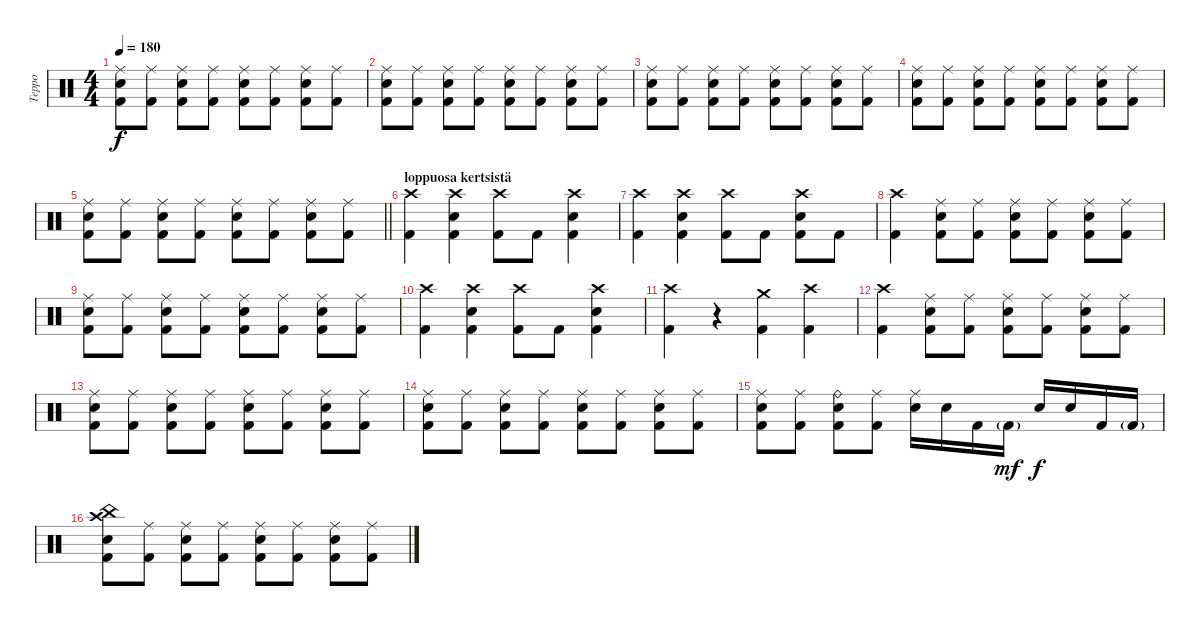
\track ("Teppo" "Teppo") {instrument percussion}
\staff {score}
\articulation defaults
\ts (4 4)
\tempo 180
\clef neutral
\ks c
("Ride (middle)" "Electric Snare (hit)" "Kick (hit) 2").8{dy f} ("Ride (middle)" "Kick (hit) 2").8 ("Ride (middle)" "Electric Snare (hit)" "Kick (hit) 2").8 ("Ride (middle)" "Kick (hit) 2").8 ("Ride (middle)" "Electric Snare (hit)" "Kick (hit) 2").8 ("Ride (middle)" "Kick (hit) 2").8 ("Ride (middle)" "Electric Snare (hit)" "Kick (hit) 2").8 ("Ride (middle)" "Kick (hit) 2").8 |
("Ride (middle)" "Electric Snare (hit)" "Kick (hit) 2").8 ("Ride (middle)" "Kick (hit) 2").8 ("Ride (middle)" "Electric Snare (hit)" "Kick (hit) 2").8 ("Ride (middle)" "Kick (hit) 2").8 ("Ride (middle)" "Electric Snare (hit)" "Kick (hit) 2").8 ("Ride (middle)" "Kick (hit) 2").8 ("Ride (middle)" "Electric Snare (hit)" "Kick (hit) 2").8 ("Ride (middle)" "Kick (hit) 2").8 |
("Ride (middle)" "Electric Snare (hit)" "Kick (hit) 2").8 ("Ride (middle)" "Kick (hit) 2").8 ("Ride (middle)" "Electric Snare (hit)" "Kick (hit) 2").8 ("Ride (middle)" "Kick (hit) 2").8 ("Ride (middle)" "Electric Snare (hit)" "Kick (hit) 2").8 ("Ride (middle)" "Kick (hit) 2").8 ("Ride (middle)" "Electric Snare (hit)" "Kick (hit) 2").8 ("Ride (middle)" "Kick (hit) 2").8 |
("Ride (middle)" "Electric Snare (hit)" "Kick (hit) 2").8 ("Ride (middle)" "Kick (hit) 2").8 ("Ride (middle)" "Electric Snare (hit)" "Kick (hit) 2").8 ("Ride (middle)" "Kick (hit) 2").8 ("Ride (middle)" "Electric Snare (hit)" "Kick (hit) 2").8 ("Ride (middle)" "Kick (hit) 2").8 ("Ride (middle)" "Electric Snare (hit)" "Kick (hit) 2").8 ("Ride (middle)" "Kick (hit) 2").8 |
\barLineRight lightlight
("Ride (middle)" "Electric Snare (hit)" "Kick (hit) 2").8 ("Ride (middle)" "Kick (hit) 2").8 ("Ride (middle)" "Electric Snare (hit)" "Kick (hit) 2").8 ("Ride (middle)" "Kick (hit) 2").8 ("Ride (middle)" "Electric Snare (hit)" "Kick (hit) 2").8 ("Ride (middle)" "Kick (hit) 2").8 ("Ride (middle)" "Electric Snare (hit)" "Kick (hit) 2").8 ("Ride (middle)" "Kick (hit) 2").8 |
\section ("" "loppuosa kertsistä")
("Crash high (hit)" "Kick (hit) 2").4 ("Crash high (hit)" "Electric Snare (hit)" "Kick (hit) 2").4 ("Crash high (hit)" "Kick (hit) 2").8 "Kick (hit) 2".8 ("Crash high (hit)" "Electric Snare (hit)" "Kick (hit) 2").4 |
("Crash high (hit)" "Kick (hit) 2").4 ("Crash high (hit)" "Electric Snare (hit)" "Kick (hit) 2").4 ("Crash high (hit)" "Kick (hit) 2").8 "Kick (hit) 2".8 ("Crash high (hit)" "Electric Snare (hit)" "Kick (hit) 2").8 "Kick (hit) 2".8 |
("Crash high (hit)" "Kick (hit) 2").4 ("Ride (middle)" "Electric Snare (hit)" "Kick (hit) 2").8 ("Ride (middle)" "Kick (hit) 2").8 ("Ride (middle)" "Electric Snare (hit)" "Kick (hit) 2").8 ("Ride (middle)" "Kick (hit) 2").8 ("Ride (middle)" "Electric Snare (hit)" "Kick (hit) 2").8 ("Ride (middle)" "Kick (hit) 2").8 |
("Ride (middle)" "Electric Snare (hit)" "Kick (hit) 2").8 ("Ride (middle)" "Kick (hit) 2").8 ("Ride (middle)" "Electric Snare (hit)" "Kick (hit) 2").8 ("Ride (middle)" "Kick (hit) 2").8 ("Ride (middle)" "Electric Snare (hit)" "Kick (hit) 2").8 ("Ride (middle)" "Kick (hit) 2").8 ("Ride (middle)" "Electric Snare (hit)" "Kick (hit) 2").8 ("Ride (middle)" "Kick (hit) 2").8 |
("Crash high (hit)" "Kick (hit) 2").4 ("Crash high (hit)" "Electric Snare (hit)" "Kick (hit) 2").4 ("Crash high (hit)" "Kick (hit) 2").8 "Kick (hit) 2".8 ("Crash high (hit)" "Electric Snare (hit)" "Kick (hit) 2").4 |
("Crash high (hit)" "Kick (hit) 2").4 r.4 ("Crash medium (hit)" "Kick (hit) 2").4 ("Crash high (hit)" "Kick (hit) 2").4 |
("Crash high (hit)" "Kick (hit) 2").4 ("Ride (middle)" "Electric Snare (hit)" "Kick (hit) 2").8 ("Ride (middle)" "Kick (hit) 2").8 ("Ride (middle)" "Electric Snare (hit)" "Kick (hit) 2").8 ("Ride (middle)" "Kick (hit) 2").8 ("Ride (middle)" "Electric Snare (hit)" "Kick (hit) 2").8 ("Ride (middle)" "Kick (hit) 2").8 |
("Ride (middle)" "Electric Snare (hit)" "Kick (hit) 2").8 ("Ride (middle)" "Kick (hit) 2").8 ("Ride (middle)" "Electric Snare (hit)" "Kick (hit) 2").8 ("Ride (middle)" "Kick (hit) 2").8 ("Ride (middle)" "Electric Snare (hit)" "Kick (hit) 2").8 ("Ride (middle)" "Kick (hit) 2").8 ("Ride (middle)" "Electric Snare (hit)" "Kick (hit) 2").8 ("Ride (middle)" "Kick (hit) 2").8 |
("Ride (middle)" "Electric Snare (hit)" "Kick (hit) 2").8 ("Ride (middle)" "Kick (hit) 2").8 ("Ride (middle)" "Electric Snare (hit)" "Kick (hit) 2").8 ("Ride (middle)" "Kick (hit) 2").8 ("Ride (middle)" "Electric Snare (hit)" "Kick (hit) 2").8 ("Ride (middle)" "Kick (hit) 2").8 ("Ride (middle)" "Electric Snare (hit)" "Kick (hit) 2").8 ("Ride (middle)" "Kick (hit) 2").8 |
("Ride (middle)" "Electric Snare (hit)" "Kick (hit) 2").8 ("Ride (middle)" "Kick (hit) 2").8 ("Ride (bell)" "Electric Snare (hit)" "Kick (hit) 2").8 ("Ride (middle)" "Kick (hit) 2").8 ("Ride (middle)" "Electric Snare (hit)").16 "Electric Snare (hit)".16 "Kick (hit) 2".16 "Kick (hit) 2"{g}.16{dy mf} "Electric Snare (hit)".16{dy f} "Electric Snare (hit)".16 "Kick (hit) 2".16 "Kick (hit) 2"{g}.16 |
("Crash high (hit)" "China (hit)" "Electric Snare (hit)" "Kick (hit) 2").8 ("Ride (middle)" "Kick (hit) 2").8 ("Ride (middle)" "Electric Snare (hit)" "Kick (hit) 2").8 ("Ride (middle)" "Kick (hit) 2").8 ("Ride (middle)" "Electric Snare (hit)" "Kick (hit) 2").8 ("Ride (middle)" "Kick (hit) 2").8 ("Ride (middle)" "Electric Snare (hit)" "Kick (hit) 2").8 ("Ride (middle)" "Kick (hit) 2").8
